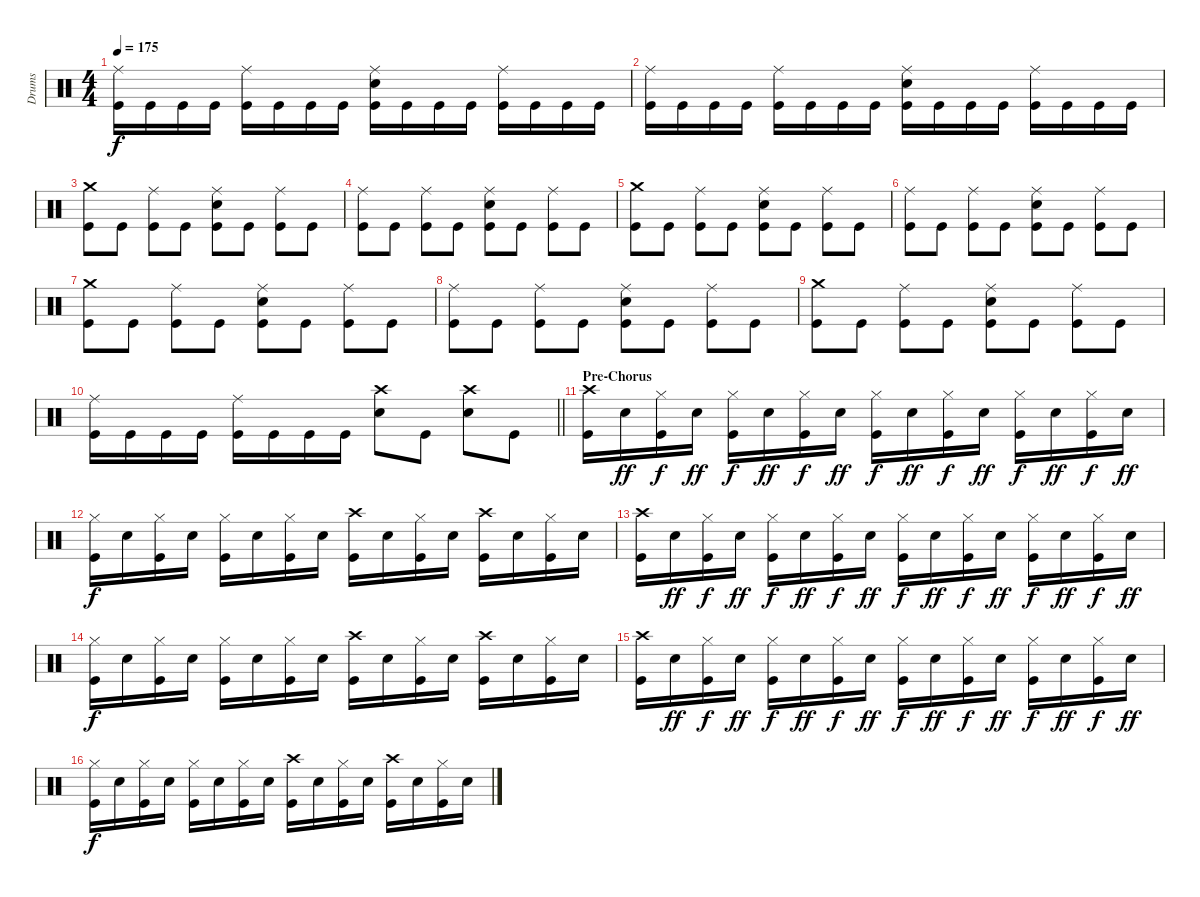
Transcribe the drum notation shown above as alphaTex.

\track ("Drums" "Drums") {instrument percussion}
\staff {score}
\articulation defaults
\ts (4 4)
\tempo 175
\clef neutral
\ks c
("Ride (middle)" "Kick (hit)").16{dy f} "Kick (hit)".16 "Kick (hit)".16 "Kick (hit)".16 ("Ride (middle)" "Kick (hit)").16 "Kick (hit)".16 "Kick (hit)".16 "Kick (hit)".16 ("Ride (middle)" "Snare (hit) 2" "Kick (hit)").16 "Kick (hit)".16 "Kick (hit)".16 "Kick (hit)".16 ("Ride (middle)" "Kick (hit)").16 "Kick (hit)".16 "Kick (hit)".16 "Kick (hit)".16 |
("Ride (middle)" "Kick (hit)").16 "Kick (hit)".16 "Kick (hit)".16 "Kick (hit)".16 ("Ride (middle)" "Kick (hit)").16 "Kick (hit)".16 "Kick (hit)".16 "Kick (hit)".16 ("Ride (middle)" "Snare (hit) 2" "Kick (hit)").16 "Kick (hit)".16 "Kick (hit)".16 "Kick (hit)".16 ("Ride (middle)" "Kick (hit)").16 "Kick (hit)".16 "Kick (hit)".16 "Kick (hit)".16 |
("Crash medium (hit)" "Kick (hit)").8 "Kick (hit)".8 ("Ride (middle)" "Kick (hit)").8 "Kick (hit)".8 ("Ride (middle)" "Snare (hit) 2" "Kick (hit)").8 "Kick (hit)".8 ("Ride (middle)" "Kick (hit)").8 "Kick (hit)".8 |
("Ride (middle)" "Kick (hit)").8 "Kick (hit)".8 ("Ride (middle)" "Kick (hit)").8 "Kick (hit)".8 ("Ride (middle)" "Snare (hit) 2" "Kick (hit)").8 "Kick (hit)".8 ("Ride (middle)" "Kick (hit)").8 "Kick (hit)".8 |
("Crash medium (hit)" "Kick (hit)").8 "Kick (hit)".8 ("Ride (middle)" "Kick (hit)").8 "Kick (hit)".8 ("Ride (middle)" "Snare (hit) 2" "Kick (hit)").8 "Kick (hit)".8 ("Ride (middle)" "Kick (hit)").8 "Kick (hit)".8 |
("Ride (middle)" "Kick (hit)").8 "Kick (hit)".8 ("Ride (middle)" "Kick (hit)").8 "Kick (hit)".8 ("Ride (middle)" "Snare (hit) 2" "Kick (hit)").8 "Kick (hit)".8 ("Ride (middle)" "Kick (hit)").8 "Kick (hit)".8 |
("Crash medium (hit)" "Kick (hit)").8 "Kick (hit)".8 ("Ride (middle)" "Kick (hit)").8 "Kick (hit)".8 ("Ride (middle)" "Snare (hit) 2" "Kick (hit)").8 "Kick (hit)".8 ("Ride (middle)" "Kick (hit)").8 "Kick (hit)".8 |
("Ride (middle)" "Kick (hit)").8 "Kick (hit)".8 ("Ride (middle)" "Kick (hit)").8 "Kick (hit)".8 ("Ride (middle)" "Snare (hit) 2" "Kick (hit)").8 "Kick (hit)".8 ("Ride (middle)" "Kick (hit)").8 "Kick (hit)".8 |
("Crash medium (hit)" "Kick (hit)").8 "Kick (hit)".8 ("Ride (middle)" "Kick (hit)").8 "Kick (hit)".8 ("Ride (middle)" "Snare (hit) 2" "Kick (hit)").8 "Kick (hit)".8 ("Ride (middle)" "Kick (hit)").8 "Kick (hit)".8 |
\barLineRight lightlight
("Ride (middle)" "Kick (hit)").16 "Kick (hit)".16 "Kick (hit)".16 "Kick (hit)".16 ("Ride (middle)" "Kick (hit)").16 "Kick (hit)".16 "Kick (hit)".16 "Kick (hit)".16 ("Crash high (hit)" "Snare (hit) 2").8 "Kick (hit)".8 ("Crash high (hit)" "Snare (hit) 2").8 "Kick (hit)".8 |
\section ("" "Pre-Chorus")
("Crash high (hit)" "Kick (hit)").16 "Snare (hit) 2".16{dy ff} ("Hi-Hat (closed)" "Kick (hit)").16{dy f} "Snare (hit) 2".16{dy ff} ("Hi-Hat (closed)" "Kick (hit)").16{dy f} "Snare (hit) 2".16{dy ff} ("Hi-Hat (closed)" "Kick (hit)").16{dy f} "Snare (hit) 2".16{dy ff} ("Hi-Hat (closed)" "Kick (hit)").16{dy f} "Snare (hit) 2".16{dy ff} ("Hi-Hat (closed)" "Kick (hit)").16{dy f} "Snare (hit) 2".16{dy ff} ("Hi-Hat (closed)" "Kick (hit)").16{dy f} "Snare (hit) 2".16{dy ff} ("Hi-Hat (closed)" "Kick (hit)").16{dy f} "Snare (hit) 2".16{dy ff} |
("Hi-Hat (closed)" "Kick (hit)").16{dy f} "Snare (hit) 2".16 ("Hi-Hat (closed)" "Kick (hit)").16 "Snare (hit) 2".16 ("Hi-Hat (closed)" "Kick (hit)").16 "Snare (hit) 2".16 ("Hi-Hat (closed)" "Kick (hit)").16 "Snare (hit) 2".16 ("Crash high (hit)" "Kick (hit)").16 "Snare (hit) 2".16 ("Hi-Hat (closed)" "Kick (hit)").16 "Snare (hit) 2".16 ("Crash high (hit)" "Kick (hit)").16 "Snare (hit) 2".16 ("Hi-Hat (closed)" "Kick (hit)").16 "Snare (hit) 2".16 |
("Crash high (hit)" "Kick (hit)").16 "Snare (hit) 2".16{dy ff} ("Hi-Hat (closed)" "Kick (hit)").16{dy f} "Snare (hit) 2".16{dy ff} ("Hi-Hat (closed)" "Kick (hit)").16{dy f} "Snare (hit) 2".16{dy ff} ("Hi-Hat (closed)" "Kick (hit)").16{dy f} "Snare (hit) 2".16{dy ff} ("Hi-Hat (closed)" "Kick (hit)").16{dy f} "Snare (hit) 2".16{dy ff} ("Hi-Hat (closed)" "Kick (hit)").16{dy f} "Snare (hit) 2".16{dy ff} ("Hi-Hat (closed)" "Kick (hit)").16{dy f} "Snare (hit) 2".16{dy ff} ("Hi-Hat (closed)" "Kick (hit)").16{dy f} "Snare (hit) 2".16{dy ff} |
("Hi-Hat (closed)" "Kick (hit)").16{dy f} "Snare (hit) 2".16 ("Hi-Hat (closed)" "Kick (hit)").16 "Snare (hit) 2".16 ("Hi-Hat (closed)" "Kick (hit)").16 "Snare (hit) 2".16 ("Hi-Hat (closed)" "Kick (hit)").16 "Snare (hit) 2".16 ("Crash high (hit)" "Kick (hit)").16 "Snare (hit) 2".16 ("Hi-Hat (closed)" "Kick (hit)").16 "Snare (hit) 2".16 ("Crash high (hit)" "Kick (hit)").16 "Snare (hit) 2".16 ("Hi-Hat (closed)" "Kick (hit)").16 "Snare (hit) 2".16 |
("Crash high (hit)" "Kick (hit)").16 "Snare (hit) 2".16{dy ff} ("Hi-Hat (closed)" "Kick (hit)").16{dy f} "Snare (hit) 2".16{dy ff} ("Hi-Hat (closed)" "Kick (hit)").16{dy f} "Snare (hit) 2".16{dy ff} ("Hi-Hat (closed)" "Kick (hit)").16{dy f} "Snare (hit) 2".16{dy ff} ("Hi-Hat (closed)" "Kick (hit)").16{dy f} "Snare (hit) 2".16{dy ff} ("Hi-Hat (closed)" "Kick (hit)").16{dy f} "Snare (hit) 2".16{dy ff} ("Hi-Hat (closed)" "Kick (hit)").16{dy f} "Snare (hit) 2".16{dy ff} ("Hi-Hat (closed)" "Kick (hit)").16{dy f} "Snare (hit) 2".16{dy ff} |
("Hi-Hat (closed)" "Kick (hit)").16{dy f} "Snare (hit) 2".16 ("Hi-Hat (closed)" "Kick (hit)").16 "Snare (hit) 2".16 ("Hi-Hat (closed)" "Kick (hit)").16 "Snare (hit) 2".16 ("Hi-Hat (closed)" "Kick (hit)").16 "Snare (hit) 2".16 ("Crash high (hit)" "Kick (hit)").16 "Snare (hit) 2".16 ("Hi-Hat (closed)" "Kick (hit)").16 "Snare (hit) 2".16 ("Crash high (hit)" "Kick (hit)").16 "Snare (hit) 2".16 ("Hi-Hat (closed)" "Kick (hit)").16 "Snare (hit) 2".16
